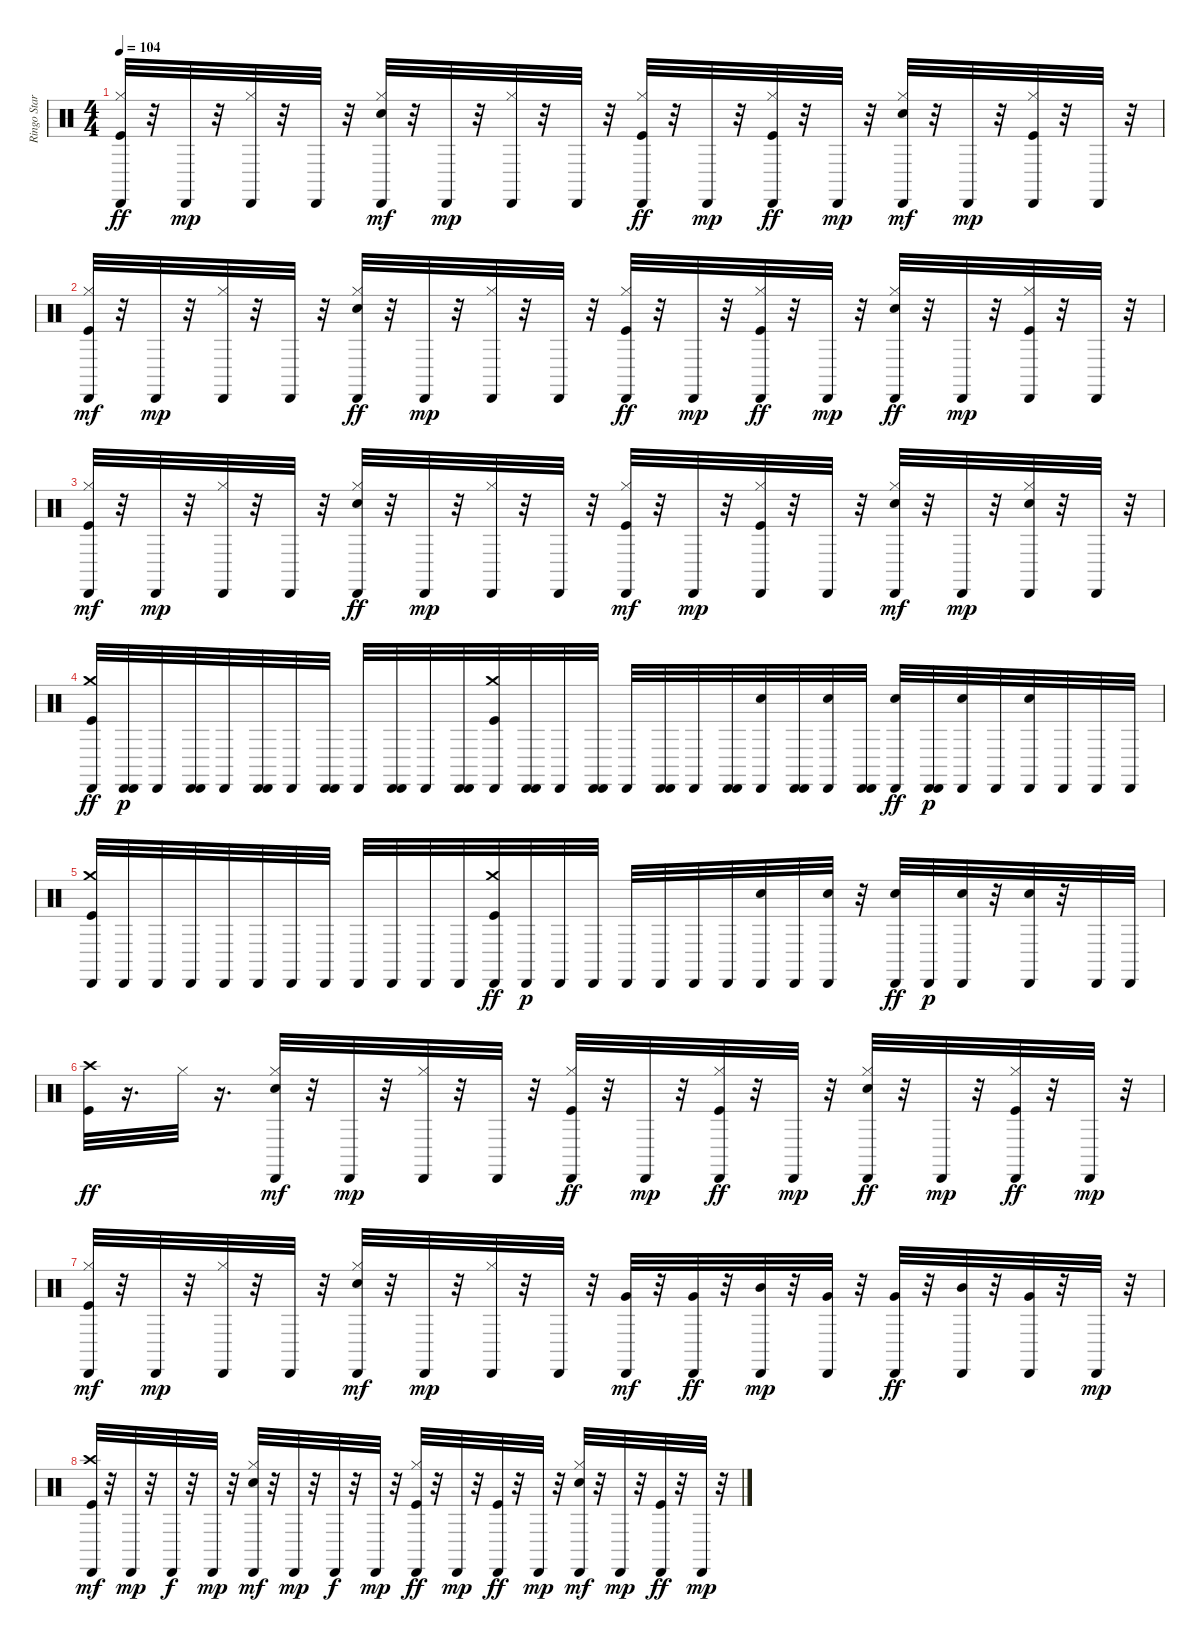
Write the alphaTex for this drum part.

\track ("Ringo Starr - Drums" "Ringo Star") {instrument percussion}
\staff {score}
\articulation defaults
\ts (4 4)
\tempo 104
\clef neutral
\ks c
("Hi-Hat (closed)" "Cabasa (hit)" "Kick (hit)").32{dy ff} r.32 "Cabasa (hit)".32{dy mp} r.32 ("Hi-Hat (closed)" "Cabasa (hit)").32 r.32 "Cabasa (hit)".32 r.32 ("Hi-Hat (closed)" "Snare (hit) 2" "Cabasa (hit)").32{dy mf} r.32 "Cabasa (hit)".32{dy mp} r.32 ("Hi-Hat (closed)" "Cabasa (hit)").32 r.32 "Cabasa (hit)".32 r.32 ("Hi-Hat (closed)" "Cabasa (hit)" "Kick (hit)").32{dy ff} r.32 "Cabasa (hit)".32{dy mp} r.32 ("Hi-Hat (closed)" "Cabasa (hit)" "Kick (hit)").32{dy ff} r.32 "Cabasa (hit)".32{dy mp} r.32 ("Hi-Hat (closed)" "Snare (hit) 2" "Cabasa (hit)").32{dy mf} r.32 "Cabasa (hit)".32{dy mp} r.32 ("Hi-Hat (closed)" "Kick (hit)" "Cabasa (hit)").32 r.32 "Cabasa (hit)".32 r.32 |
("Hi-Hat (closed)" "Kick (hit)" "Cabasa (hit)").32{dy mf} r.32 "Cabasa (hit)".32{dy mp} r.32 ("Hi-Hat (closed)" "Cabasa (hit)").32 r.32 "Cabasa (hit)".32 r.32 ("Hi-Hat (closed)" "Cabasa (hit)" "Snare (hit) 2").32{dy ff} r.32 "Cabasa (hit)".32{dy mp} r.32 ("Hi-Hat (closed)" "Cabasa (hit)").32 r.32 "Cabasa (hit)".32 r.32 ("Hi-Hat (closed)" "Cabasa (hit)" "Kick (hit)").32{dy ff} r.32 "Cabasa (hit)".32{dy mp} r.32 ("Hi-Hat (closed)" "Cabasa (hit)" "Kick (hit)").32{dy ff} r.32 "Cabasa (hit)".32{dy mp} r.32 ("Hi-Hat (closed)" "Cabasa (hit)" "Snare (hit) 2").32{dy ff} r.32 "Cabasa (hit)".32{dy mp} r.32 ("Hi-Hat (closed)" "Kick (hit)" "Cabasa (hit)").32 r.32 "Cabasa (hit)".32 r.32 |
("Hi-Hat (closed)" "Kick (hit)" "Cabasa (hit)").32{dy mf} r.32 "Cabasa (hit)".32{dy mp} r.32 ("Hi-Hat (closed)" "Cabasa (hit)").32 r.32 "Cabasa (hit)".32 r.32 ("Hi-Hat (closed)" "Cabasa (hit)" "Snare (hit) 2").32{dy ff} r.32 "Cabasa (hit)".32{dy mp} r.32 ("Hi-Hat (closed)" "Cabasa (hit)").32 r.32 "Cabasa (hit)".32 r.32 ("Hi-Hat (closed)" "Kick (hit)" "Cabasa (hit)").32{dy mf} r.32 "Cabasa (hit)".32{dy mp} r.32 ("Hi-Hat (closed)" "Kick (hit)" "Cabasa (hit)").32 r.32 "Cabasa (hit)".32 r.32 ("Hi-Hat (closed)" "Snare (hit) 2" "Cabasa (hit)").32{dy mf} r.32 "Cabasa (hit)".32{dy mp} r.32 ("Hi-Hat (closed)" "Snare (hit) 2" "Cabasa (hit)").32 r.32 "Cabasa (hit)".32 r.32 |
("Cabasa (hit)" "Crash medium (hit)" "Kick (hit)").32{dy ff} ("Cabasa (hit)" "Cabasa (hit)").32{dy p} "Cabasa (hit)".32 ("Cabasa (hit)" "Cabasa (hit)").32 "Cabasa (hit)".32 ("Cabasa (hit)" "Cabasa (hit)").32 "Cabasa (hit)".32 ("Cabasa (hit)" "Cabasa (hit)").32 "Cabasa (hit)".32 ("Cabasa (hit)" "Cabasa (hit)").32 "Cabasa (hit)".32 ("Cabasa (hit)" "Cabasa (hit)").32 ("Kick (hit)" "Crash medium (hit)" "Cabasa (hit)").32 ("Cabasa (hit)" "Cabasa (hit)").32 "Cabasa (hit)".32 ("Cabasa (hit)" "Cabasa (hit)").32 "Cabasa (hit)".32 ("Cabasa (hit)" "Cabasa (hit)").32 "Cabasa (hit)".32 ("Cabasa (hit)" "Cabasa (hit)").32 ("Snare (hit) 2" "Cabasa (hit)").32 ("Cabasa (hit)" "Cabasa (hit)").32 ("Cabasa (hit)" "Snare (hit) 2").32 ("Cabasa (hit)" "Cabasa (hit)").32 ("Cabasa (hit)" "Snare (hit) 2").32{dy ff} ("Cabasa (hit)" "Cabasa (hit)").32{dy p} ("Snare (hit) 2" "Cabasa (hit)").32 "Cabasa (hit)".32 ("Cabasa (hit)" "Snare (hit) 2").32 "Cabasa (hit)".32 "Cabasa (hit)".32 "Cabasa (hit)".32 |
("Kick (hit)" "Crash medium (hit)" "Cabasa (hit)").32 "Cabasa (hit)".32 "Cabasa (hit)".32 "Cabasa (hit)".32 "Cabasa (hit)".32 "Cabasa (hit)".32 "Cabasa (hit)".32 "Cabasa (hit)".32 "Cabasa (hit)".32 "Cabasa (hit)".32 "Cabasa (hit)".32 "Cabasa (hit)".32 ("Cabasa (hit)" "Kick (hit)" "Crash medium (hit)").32{dy ff} "Cabasa (hit)".32{dy p} "Cabasa (hit)".32 "Cabasa (hit)".32 "Cabasa (hit)".32 "Cabasa (hit)".32 "Cabasa (hit)".32 "Cabasa (hit)".32 ("Cabasa (hit)" "Snare (hit) 2").32 "Cabasa (hit)".32 ("Cabasa (hit)" "Snare (hit) 2").32 r.32 ("Cabasa (hit)" "Snare (hit) 2").32{dy ff} "Cabasa (hit)".32{dy p} ("Snare (hit) 2" "Cabasa (hit)").32 r.32 ("Cabasa (hit)" "Snare (hit) 2").32 r.32 "Cabasa (hit)".32 "Cabasa (hit)".32 |
("Kick (hit)" "Crash high (hit)").32{dy ff} r.16{d} "Hi-Hat (closed)".32 r.16{d} ("Hi-Hat (closed)" "Snare (hit) 2" "Cabasa (hit)").32{dy mf} r.32 "Cabasa (hit)".32{dy mp} r.32 ("Hi-Hat (closed)" "Cabasa (hit)").32 r.32 "Cabasa (hit)".32 r.32 ("Hi-Hat (closed)" "Cabasa (hit)" "Kick (hit)").32{dy ff} r.32 "Cabasa (hit)".32{dy mp} r.32 ("Hi-Hat (closed)" "Cabasa (hit)" "Kick (hit)").32{dy ff} r.32 "Cabasa (hit)".32{dy mp} r.32 ("Hi-Hat (closed)" "Cabasa (hit)" "Snare (hit) 2").32{dy ff} r.32 "Cabasa (hit)".32{dy mp} r.32 ("Hi-Hat (closed)" "Cabasa (hit)" "Kick (hit)").32{dy ff} r.32 "Cabasa (hit)".32{dy mp} r.32 |
("Hi-Hat (closed)" "Kick (hit)" "Cabasa (hit)").32{dy mf} r.32 "Cabasa (hit)".32{dy mp} r.32 ("Hi-Hat (closed)" "Cabasa (hit)").32 r.32 "Cabasa (hit)".32 r.32 ("Hi-Hat (closed)" "Snare (hit) 2" "Cabasa (hit)").32{dy mf} r.32 "Cabasa (hit)".32{dy mp} r.32 ("Hi-Hat (closed)" "Cabasa (hit)").32 r.32 "Cabasa (hit)".32 r.32 ("Very Low Tom (hit)" "Cabasa (hit)").32{dy mf} r.32 ("Cabasa (hit)" "Very Low Tom (hit)").32{dy ff} r.32 ("Mid Tom (hit)" "Cabasa (hit)").32{dy mp} r.32 ("Very Low Tom (hit)" "Cabasa (hit)").32 r.32 ("Cabasa (hit)" "Very Low Tom (hit)").32{dy ff} r.32 ("Cabasa (hit)" "Mid Tom (hit)").32 r.32 ("Cabasa (hit)" "Very Low Tom (hit)").32 r.32 "Cabasa (hit)".32{dy mp} r.32 |
("Kick (hit)" "Crash high (hit)" "Cabasa (hit)").32{dy mf} r.32 "Cabasa (hit)".32{dy mp} r.32 "Cabasa (hit)".32{dy f} r.32 "Cabasa (hit)".32{dy mp} r.32 ("Hi-Hat (closed)" "Snare (hit) 2" "Cabasa (hit)").32{dy mf} r.32 "Cabasa (hit)".32{dy mp} r.32 "Cabasa (hit)".32{dy f} r.32 "Cabasa (hit)".32{dy mp} r.32 ("Hi-Hat (closed)" "Cabasa (hit)" "Kick (hit)").32{dy ff} r.32 "Cabasa (hit)".32{dy mp} r.32 ("Cabasa (hit)" "Kick (hit)").32{dy ff} r.32 "Cabasa (hit)".32{dy mp} r.32 ("Hi-Hat (closed)" "Snare (hit) 2" "Cabasa (hit)").32{dy mf} r.32 "Cabasa (hit)".32{dy mp} r.32 ("Cabasa (hit)" "Kick (hit)").32{dy ff} r.32 "Cabasa (hit)".32{dy mp} r.32
